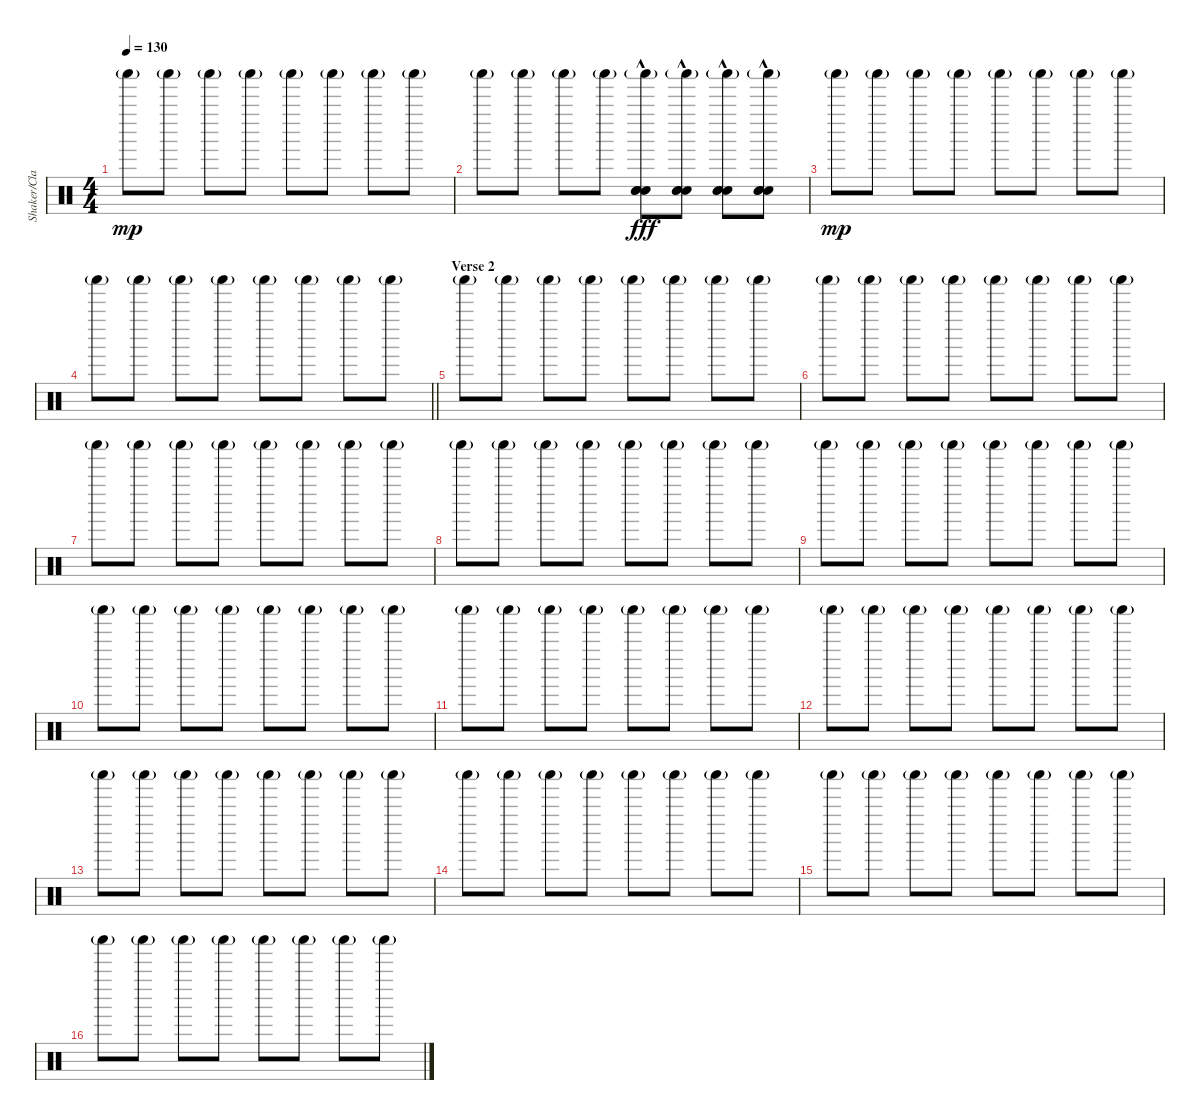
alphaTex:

\track ("Shaker/Claps" "Shaker/Cla") {instrument percussion}
\staff {score}
\articulation defaults
\ts (4 4)
\tempo 130
\clef neutral
\ks c "Shaker (hit)"{g}.8{dy mp} "Shaker (hit)"{g}.8 "Shaker (hit)"{g}.8 "Shaker (hit)"{g}.8 "Shaker (hit)"{g}.8 "Shaker (hit)"{g}.8 "Shaker (hit)"{g}.8 "Shaker (hit)"{g}.8
|
"Shaker (hit)"{g}.8 "Shaker (hit)"{g}.8 "Shaker (hit)"{g}.8 "Shaker (hit)"{g}.8 ("Shaker (hit)"{g} "Hand Clap (hit)" "Hand Clap (hit)"{hac} "Hand Clap (hit)"{hac}).8{dy fff} ("Shaker (hit)"{g} "Hand Clap (hit)"{hac} "Hand Clap (hit)"{hac} "Hand Clap (hit)"{hac}).8 ("Shaker (hit)"{g} "Hand Clap (hit)"{hac} "Hand Clap (hit)"{hac} "Hand Clap (hit)"{hac}).8 ("Shaker (hit)"{g} "Hand Clap (hit)"{hac} "Hand Clap (hit)"{hac} "Hand Clap (hit)"{hac}).8 |
"Shaker (hit)"{g}.8{dy mp} "Shaker (hit)"{g}.8 "Shaker (hit)"{g}.8 "Shaker (hit)"{g}.8 "Shaker (hit)"{g}.8 "Shaker (hit)"{g}.8 "Shaker (hit)"{g}.8 "Shaker (hit)"{g}.8 |
\barLineRight lightlight "Shaker (hit)"{g}.8 "Shaker (hit)"{g}.8 "Shaker (hit)"{g}.8 "Shaker (hit)"{g}.8 "Shaker (hit)"{g}.8 "Shaker (hit)"{g}.8 "Shaker (hit)"{g}.8 "Shaker (hit)"{g}.8
|
\section ("" "Verse 2")
"Shaker (hit)"{g}.8 "Shaker (hit)"{g}.8 "Shaker (hit)"{g}.8 "Shaker (hit)"{g}.8 "Shaker (hit)"{g}.8 "Shaker (hit)"{g}.8 "Shaker (hit)"{g}.8 "Shaker (hit)"{g}.8 |
"Shaker (hit)"{g}.8 "Shaker (hit)"{g}.8 "Shaker (hit)"{g}.8 "Shaker (hit)"{g}.8 "Shaker (hit)"{g}.8 "Shaker (hit)"{g}.8 "Shaker (hit)"{g}.8 "Shaker (hit)"{g}.8 |
"Shaker (hit)"{g}.8 "Shaker (hit)"{g}.8 "Shaker (hit)"{g}.8 "Shaker (hit)"{g}.8 "Shaker (hit)"{g}.8 "Shaker (hit)"{g}.8 "Shaker (hit)"{g}.8 "Shaker (hit)"{g}.8 |
"Shaker (hit)"{g}.8 "Shaker (hit)"{g}.8 "Shaker (hit)"{g}.8 "Shaker (hit)"{g}.8 "Shaker (hit)"{g}.8 "Shaker (hit)"{g}.8 "Shaker (hit)"{g}.8 "Shaker (hit)"{g}.8 |
"Shaker (hit)"{g}.8 "Shaker (hit)"{g}.8 "Shaker (hit)"{g}.8 "Shaker (hit)"{g}.8 "Shaker (hit)"{g}.8 "Shaker (hit)"{g}.8 "Shaker (hit)"{g}.8 "Shaker (hit)"{g}.8 |
"Shaker (hit)"{g}.8 "Shaker (hit)"{g}.8 "Shaker (hit)"{g}.8 "Shaker (hit)"{g}.8 "Shaker (hit)"{g}.8 "Shaker (hit)"{g}.8 "Shaker (hit)"{g}.8 "Shaker (hit)"{g}.8 |
"Shaker (hit)"{g}.8 "Shaker (hit)"{g}.8 "Shaker (hit)"{g}.8 "Shaker (hit)"{g}.8 "Shaker (hit)"{g}.8 "Shaker (hit)"{g}.8 "Shaker (hit)"{g}.8 "Shaker (hit)"{g}.8 |
"Shaker (hit)"{g}.8 "Shaker (hit)"{g}.8 "Shaker (hit)"{g}.8 "Shaker (hit)"{g}.8 "Shaker (hit)"{g}.8 "Shaker (hit)"{g}.8 "Shaker (hit)"{g}.8 "Shaker (hit)"{g}.8 |
"Shaker (hit)"{g}.8 "Shaker (hit)"{g}.8 "Shaker (hit)"{g}.8 "Shaker (hit)"{g}.8 "Shaker (hit)"{g}.8 "Shaker (hit)"{g}.8 "Shaker (hit)"{g}.8 "Shaker (hit)"{g}.8 |
"Shaker (hit)"{g}.8 "Shaker (hit)"{g}.8 "Shaker (hit)"{g}.8 "Shaker (hit)"{g}.8 "Shaker (hit)"{g}.8 "Shaker (hit)"{g}.8 "Shaker (hit)"{g}.8 "Shaker (hit)"{g}.8 |
"Shaker (hit)"{g}.8 "Shaker (hit)"{g}.8 "Shaker (hit)"{g}.8 "Shaker (hit)"{g}.8 "Shaker (hit)"{g}.8 "Shaker (hit)"{g}.8 "Shaker (hit)"{g}.8 "Shaker (hit)"{g}.8 |
"Shaker (hit)"{g}.8 "Shaker (hit)"{g}.8 "Shaker (hit)"{g}.8 "Shaker (hit)"{g}.8 "Shaker (hit)"{g}.8 "Shaker (hit)"{g}.8 "Shaker (hit)"{g}.8 "Shaker (hit)"{g}.8
